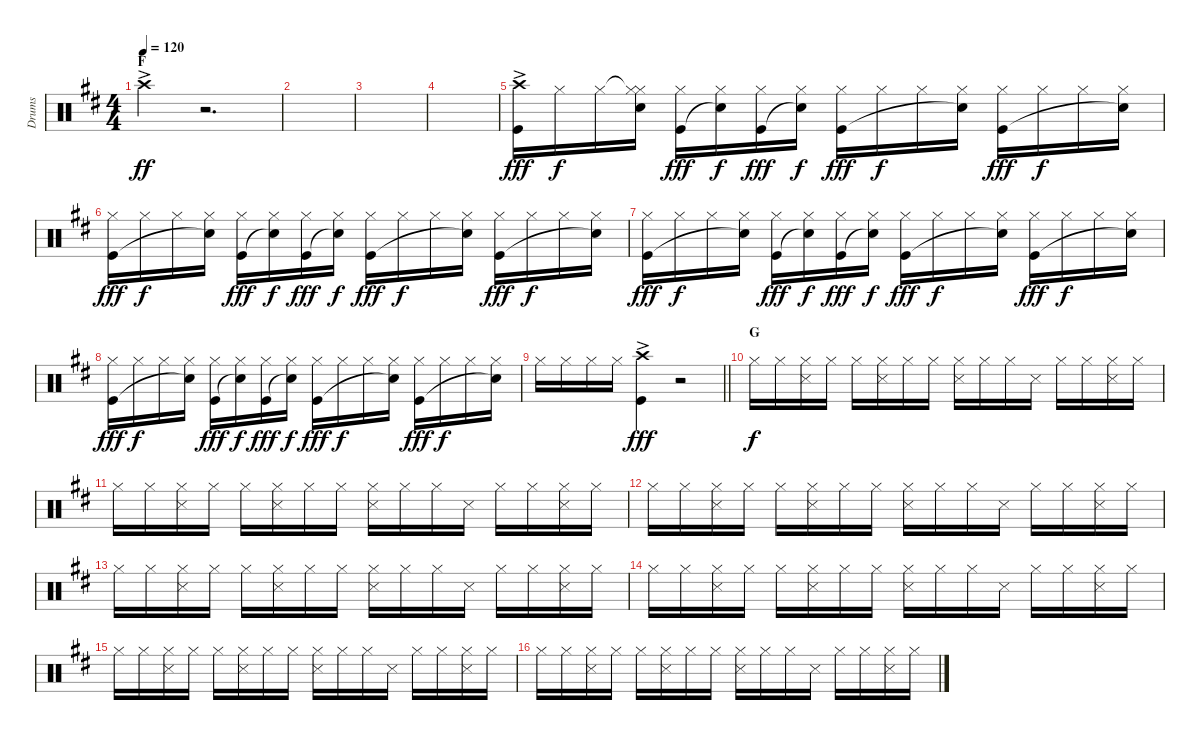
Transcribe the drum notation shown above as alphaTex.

\track ("Drums" "Drums") {instrument percussion}
\staff {score}
\articulation defaults
\ts (4 4)
\section ("" "F")
\tempo 120
\clef neutral
\ks d "Crash high (hit)"{ac}.4{dy ff}
r.2{d} |
|
|
|
("Crash high (hit)"{ac} "Kick (hit)").16{dy fff} "Hi-Hat (closed)".16{dy f} "Hi-Hat (closed)".16 ("Hi-Hat (closed)"{t} "Hi-Hat (closed)" "Snare (hit)").16 ("Hi-Hat (closed)" "Kick (hit)").16{dy fff} ("Hi-Hat (closed)" "Snare (hit)"{t}).16{dy f} ("Hi-Hat (closed)" "Kick (hit)").16{dy fff} ("Hi-Hat (closed)" "Snare (hit)"{t}).16{dy f} ("Hi-Hat (closed)" "Kick (hit)").16{dy fff} "Hi-Hat (closed)".16{dy f} "Hi-Hat (closed)".16 ("Hi-Hat (closed)" "Snare (hit)"{t}).16 ("Hi-Hat (closed)" "Kick (hit)").16{dy fff} "Hi-Hat (closed)".16{dy f} "Hi-Hat (closed)".16 ("Hi-Hat (closed)" "Snare (hit)"{t}).16 |
("Hi-Hat (closed)" "Kick (hit)").16{dy fff} "Hi-Hat (closed)".16{dy f} "Hi-Hat (closed)".16 ("Hi-Hat (closed)" "Snare (hit)"{t}).16 ("Hi-Hat (closed)" "Kick (hit)").16{dy fff} ("Hi-Hat (closed)" "Snare (hit)"{t}).16{dy f} ("Hi-Hat (closed)" "Kick (hit)").16{dy fff} ("Hi-Hat (closed)" "Snare (hit)"{t}).16{dy f} ("Hi-Hat (closed)" "Kick (hit)").16{dy fff} "Hi-Hat (closed)".16{dy f} "Hi-Hat (closed)".16 ("Hi-Hat (closed)" "Snare (hit)"{t}).16 ("Hi-Hat (closed)" "Kick (hit)").16{dy fff} "Hi-Hat (closed)".16{dy f} "Hi-Hat (closed)".16 ("Hi-Hat (closed)" "Snare (hit)"{t}).16 |
("Hi-Hat (closed)" "Kick (hit)").16{dy fff} "Hi-Hat (closed)".16{dy f} "Hi-Hat (closed)".16 ("Hi-Hat (closed)" "Snare (hit)"{t}).16 ("Hi-Hat (closed)" "Kick (hit)").16{dy fff} ("Hi-Hat (closed)" "Snare (hit)"{t}).16{dy f} ("Hi-Hat (closed)" "Kick (hit)").16{dy fff} ("Hi-Hat (closed)" "Snare (hit)"{t}).16{dy f} ("Hi-Hat (closed)" "Kick (hit)").16{dy fff} "Hi-Hat (closed)".16{dy f} "Hi-Hat (closed)".16 ("Hi-Hat (closed)" "Snare (hit)"{t}).16 ("Hi-Hat (closed)" "Kick (hit)").16{dy fff} "Hi-Hat (closed)".16{dy f} "Hi-Hat (closed)".16 ("Hi-Hat (closed)" "Snare (hit)"{t}).16 |
("Hi-Hat (closed)" "Kick (hit)").16{dy fff} "Hi-Hat (closed)".16{dy f} "Hi-Hat (closed)".16 ("Hi-Hat (closed)" "Snare (hit)"{t}).16 ("Hi-Hat (closed)" "Kick (hit)").16{dy fff} ("Hi-Hat (closed)" "Snare (hit)"{t}).16{dy f} ("Hi-Hat (closed)" "Kick (hit)").16{dy fff} ("Hi-Hat (closed)" "Snare (hit)"{t}).16{dy f} ("Hi-Hat (closed)" "Kick (hit)").16{dy fff} "Hi-Hat (closed)".16{dy f} "Hi-Hat (closed)".16 ("Hi-Hat (closed)" "Snare (hit)"{t}).16 ("Hi-Hat (closed)" "Kick (hit)").16{dy fff} "Hi-Hat (closed)".16{dy f} "Hi-Hat (closed)".16 ("Hi-Hat (closed)" "Snare (hit)"{t}).16 |
\barLineRight lightlight "Hi-Hat (closed)".16 "Hi-Hat (closed)".16 "Hi-Hat (closed)".16 "Hi-Hat (closed)".16
("Crash high (hit)"{ac} "Kick (hit)").4{dy fff} r.2 |
\section ("" "G")
"Hi-Hat (closed)".16{txt "" dy f} "Hi-Hat (closed)".16 ("Hi-Hat (closed)" "Snare (side stick) 3").16 "Hi-Hat (closed)".16 "Hi-Hat (closed)".16 ("Hi-Hat (closed)" "Snare (side stick) 3").16 "Hi-Hat (closed)".16 "Hi-Hat (closed)".16 ("Hi-Hat (closed)" "Snare (side stick) 3").16 "Hi-Hat (closed)".16 "Hi-Hat (closed)".16 "Snare (side stick) 3".16 "Hi-Hat (closed)".16 "Hi-Hat (closed)".16 ("Hi-Hat (closed)" "Snare (side stick) 3").16 "Hi-Hat (closed)".16 |
"Hi-Hat (closed)".16 "Hi-Hat (closed)".16 ("Hi-Hat (closed)" "Snare (side stick) 3").16 "Hi-Hat (closed)".16 "Hi-Hat (closed)".16 ("Hi-Hat (closed)" "Snare (side stick) 3").16 "Hi-Hat (closed)".16 "Hi-Hat (closed)".16 ("Hi-Hat (closed)" "Snare (side stick) 3").16 "Hi-Hat (closed)".16 "Hi-Hat (closed)".16 "Snare (side stick) 3".16 "Hi-Hat (closed)".16 "Hi-Hat (closed)".16 ("Hi-Hat (closed)" "Snare (side stick) 3").16 "Hi-Hat (closed)".16 |
"Hi-Hat (closed)".16 "Hi-Hat (closed)".16 ("Hi-Hat (closed)" "Snare (side stick) 3").16 "Hi-Hat (closed)".16 "Hi-Hat (closed)".16 ("Hi-Hat (closed)" "Snare (side stick) 3").16 "Hi-Hat (closed)".16 "Hi-Hat (closed)".16 ("Hi-Hat (closed)" "Snare (side stick) 3").16 "Hi-Hat (closed)".16 "Hi-Hat (closed)".16 "Snare (side stick) 3".16 "Hi-Hat (closed)".16 "Hi-Hat (closed)".16 ("Hi-Hat (closed)" "Snare (side stick) 3").16 "Hi-Hat (closed)".16 |
"Hi-Hat (closed)".16 "Hi-Hat (closed)".16 ("Hi-Hat (closed)" "Snare (side stick) 3").16 "Hi-Hat (closed)".16 "Hi-Hat (closed)".16 ("Hi-Hat (closed)" "Snare (side stick) 3").16 "Hi-Hat (closed)".16 "Hi-Hat (closed)".16 ("Hi-Hat (closed)" "Snare (side stick) 3").16 "Hi-Hat (closed)".16 "Hi-Hat (closed)".16 "Snare (side stick) 3".16 "Hi-Hat (closed)".16 "Hi-Hat (closed)".16 ("Hi-Hat (closed)" "Snare (side stick) 3").16 "Hi-Hat (closed)".16 |
"Hi-Hat (closed)".16 "Hi-Hat (closed)".16 ("Hi-Hat (closed)" "Snare (side stick) 3").16 "Hi-Hat (closed)".16 "Hi-Hat (closed)".16 ("Hi-Hat (closed)" "Snare (side stick) 3").16 "Hi-Hat (closed)".16 "Hi-Hat (closed)".16 ("Hi-Hat (closed)" "Snare (side stick) 3").16 "Hi-Hat (closed)".16 "Hi-Hat (closed)".16 "Snare (side stick) 3".16 "Hi-Hat (closed)".16 "Hi-Hat (closed)".16 ("Hi-Hat (closed)" "Snare (side stick) 3").16 "Hi-Hat (closed)".16 |
"Hi-Hat (closed)".16 "Hi-Hat (closed)".16 ("Hi-Hat (closed)" "Snare (side stick) 3").16 "Hi-Hat (closed)".16 "Hi-Hat (closed)".16 ("Hi-Hat (closed)" "Snare (side stick) 3").16 "Hi-Hat (closed)".16 "Hi-Hat (closed)".16 ("Hi-Hat (closed)" "Snare (side stick) 3").16 "Hi-Hat (closed)".16 "Hi-Hat (closed)".16 "Snare (side stick) 3".16 "Hi-Hat (closed)".16 "Hi-Hat (closed)".16 ("Hi-Hat (closed)" "Snare (side stick) 3").16 "Hi-Hat (closed)".16 |
"Hi-Hat (closed)".16 "Hi-Hat (closed)".16 ("Hi-Hat (closed)" "Snare (side stick) 3").16 "Hi-Hat (closed)".16 "Hi-Hat (closed)".16 ("Hi-Hat (closed)" "Snare (side stick) 3").16 "Hi-Hat (closed)".16 "Hi-Hat (closed)".16 ("Hi-Hat (closed)" "Snare (side stick) 3").16 "Hi-Hat (closed)".16 "Hi-Hat (closed)".16 "Snare (side stick) 3".16 "Hi-Hat (closed)".16 "Hi-Hat (closed)".16 ("Hi-Hat (closed)" "Snare (side stick) 3").16 "Hi-Hat (closed)".16
